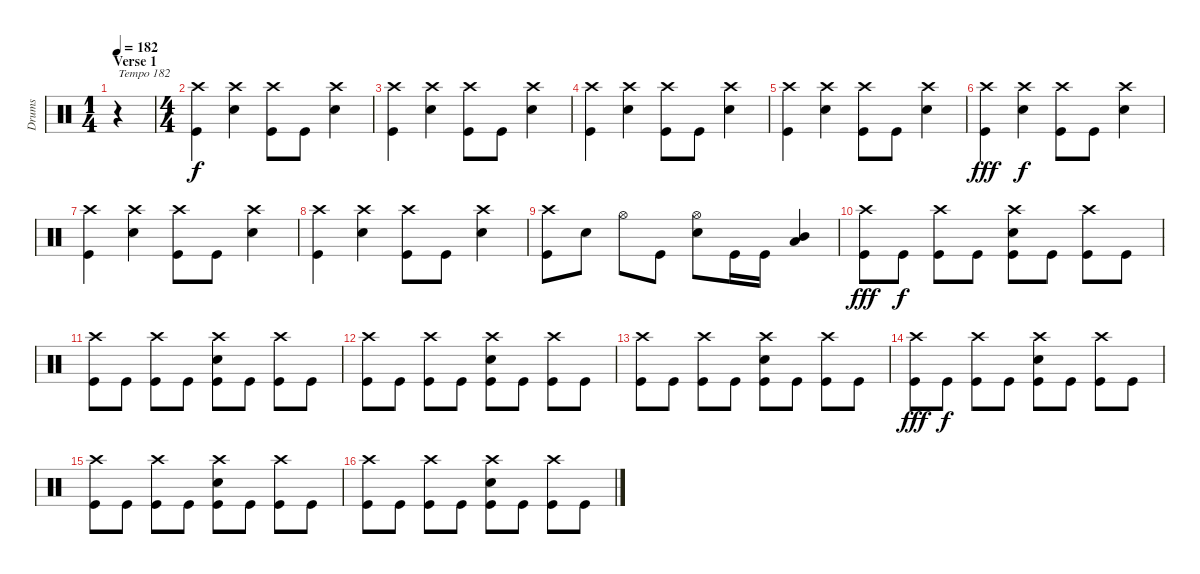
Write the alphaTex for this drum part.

\track ("Drums" "Drums") {instrument percussion}
\staff {score}
\articulation defaults
\ts (1 4)
\section ("" "Verse 1")
\tempo 182
\clef neutral
\ks c
r.4{txt "Tempo 182" dy f} |
\ts (4 4)
("Crash high (hit)" "Kick (hit)").4 ("Crash high (hit)" "Electric Snare (hit)").4 ("Crash high (hit)" "Kick (hit)").8 "Kick (hit)".8 ("Crash high (hit)" "Electric Snare (hit)").4 |
("Crash high (hit)" "Kick (hit)").4 ("Crash high (hit)" "Electric Snare (hit)").4 ("Crash high (hit)" "Kick (hit)").8 "Kick (hit)".8 ("Crash high (hit)" "Electric Snare (hit)").4 |
("Crash high (hit)" "Kick (hit)").4 ("Crash high (hit)" "Electric Snare (hit)").4 ("Crash high (hit)" "Kick (hit)").8 "Kick (hit)".8 ("Crash high (hit)" "Electric Snare (hit)").4 |
("Crash high (hit)" "Kick (hit)").4 ("Crash high (hit)" "Electric Snare (hit)").4 ("Crash high (hit)" "Kick (hit)").8 "Kick (hit)".8 ("Crash high (hit)" "Electric Snare (hit)").4 |
("Crash high (hit)" "Kick (hit)").4{dy fff} ("Crash high (hit)" "Electric Snare (hit)").4{dy f} ("Crash high (hit)" "Kick (hit)").8 "Kick (hit)".8 ("Crash high (hit)" "Electric Snare (hit)").4 |
("Crash high (hit)" "Kick (hit)").4 ("Crash high (hit)" "Electric Snare (hit)").4 ("Crash high (hit)" "Kick (hit)").8 "Kick (hit)".8 ("Crash high (hit)" "Electric Snare (hit)").4 |
("Crash high (hit)" "Kick (hit)").4 ("Crash high (hit)" "Electric Snare (hit)").4 ("Crash high (hit)" "Kick (hit)").8 "Kick (hit)".8 ("Crash high (hit)" "Electric Snare (hit)").4 |
("Crash high (hit)" "Kick (hit)").8 "Electric Snare (hit)".8 "Hi-Hat (open)".8 "Kick (hit)".8 ("Hi-Hat (open)" "Electric Snare (hit)").8 "Kick (hit)".16 "Kick (hit)".16 ("Mid Tom (hit)" "Low Tom (hit)").4 |
("Crash high (hit)" "Kick (hit)").8{dy fff} "Kick (hit)".8{dy f} ("Crash high (hit)" "Kick (hit)").8 "Kick (hit)".8 ("Electric Snare (hit)" "Crash high (hit)" "Kick (hit)").8 "Kick (hit)".8 ("Crash high (hit)" "Kick (hit)").8 "Kick (hit)".8 |
("Crash high (hit)" "Kick (hit)").8 "Kick (hit)".8 ("Crash high (hit)" "Kick (hit)").8 "Kick (hit)".8 ("Electric Snare (hit)" "Crash high (hit)" "Kick (hit)").8 "Kick (hit)".8 ("Crash high (hit)" "Kick (hit)").8 "Kick (hit)".8 |
("Crash high (hit)" "Kick (hit)").8 "Kick (hit)".8 ("Crash high (hit)" "Kick (hit)").8 "Kick (hit)".8 ("Electric Snare (hit)" "Crash high (hit)" "Kick (hit)").8 "Kick (hit)".8 ("Crash high (hit)" "Kick (hit)").8 "Kick (hit)".8 |
("Crash high (hit)" "Kick (hit)").8 "Kick (hit)".8 ("Crash high (hit)" "Kick (hit)").8 "Kick (hit)".8 ("Electric Snare (hit)" "Crash high (hit)" "Kick (hit)").8 "Kick (hit)".8 ("Crash high (hit)" "Kick (hit)").8 "Kick (hit)".8 |
("Crash high (hit)" "Kick (hit)").8{dy fff} "Kick (hit)".8{dy f} ("Crash high (hit)" "Kick (hit)").8 "Kick (hit)".8 ("Electric Snare (hit)" "Crash high (hit)" "Kick (hit)").8 "Kick (hit)".8 ("Crash high (hit)" "Kick (hit)").8 "Kick (hit)".8 |
("Crash high (hit)" "Kick (hit)").8 "Kick (hit)".8 ("Crash high (hit)" "Kick (hit)").8 "Kick (hit)".8 ("Electric Snare (hit)" "Crash high (hit)" "Kick (hit)").8 "Kick (hit)".8 ("Crash high (hit)" "Kick (hit)").8 "Kick (hit)".8 |
("Crash high (hit)" "Kick (hit)").8 "Kick (hit)".8 ("Crash high (hit)" "Kick (hit)").8 "Kick (hit)".8 ("Electric Snare (hit)" "Crash high (hit)" "Kick (hit)").8 "Kick (hit)".8 ("Crash high (hit)" "Kick (hit)").8 "Kick (hit)".8
